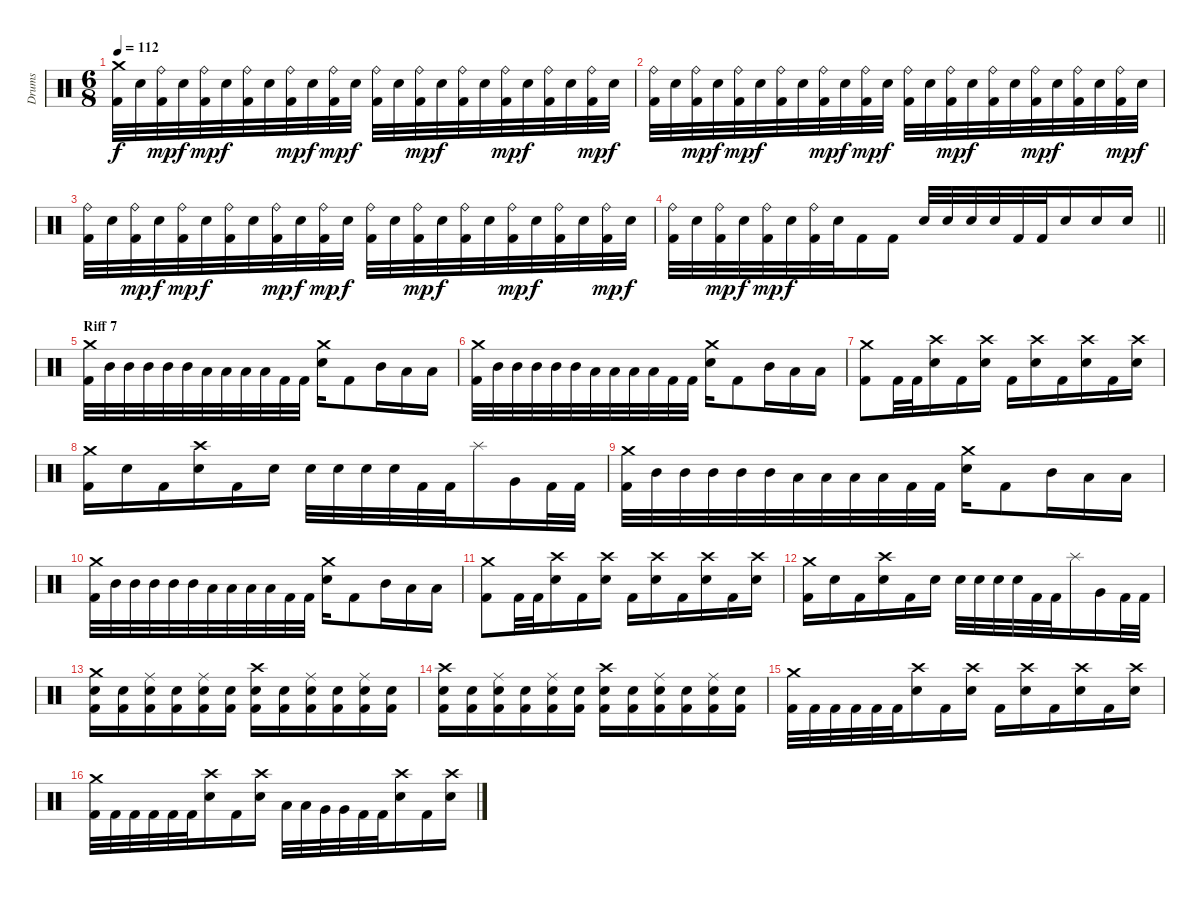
\track ("Drums" "Drums") {instrument percussion}
\staff {score}
\articulation defaults
\ts (6 8)
\tempo 112
\clef neutral
\ks c
("Crash medium (hit)" "Kick (hit) 2").32{dy f} "Electric Snare (hit)".32 ("Ride (bell)" "Kick (hit) 2").32{dy mp} "Electric Snare (hit)".32{dy f} ("Ride (bell)" "Kick (hit) 2").32{dy mp} "Electric Snare (hit)".32{dy f} ("Ride (bell)" "Kick (hit) 2").32 "Electric Snare (hit)".32 ("Ride (bell)" "Kick (hit) 2").32{dy mp} "Electric Snare (hit)".32{dy f} ("Ride (bell)" "Kick (hit) 2").32{dy mp} "Electric Snare (hit)".32{dy f} ("Ride (bell)" "Kick (hit) 2").32 "Electric Snare (hit)".32 ("Ride (bell)" "Kick (hit) 2").32{dy mp} "Electric Snare (hit)".32{dy f} ("Ride (bell)" "Kick (hit) 2").32 "Electric Snare (hit)".32 ("Ride (bell)" "Kick (hit) 2").32{dy mp} "Electric Snare (hit)".32{dy f} ("Ride (bell)" "Kick (hit) 2").32 "Electric Snare (hit)".32 ("Ride (bell)" "Kick (hit) 2").32{dy mp} "Electric Snare (hit)".32{dy f} |
("Ride (bell)" "Kick (hit) 2").32 "Electric Snare (hit)".32 ("Ride (bell)" "Kick (hit) 2").32{dy mp} "Electric Snare (hit)".32{dy f} ("Ride (bell)" "Kick (hit) 2").32{dy mp} "Electric Snare (hit)".32{dy f} ("Ride (bell)" "Kick (hit) 2").32 "Electric Snare (hit)".32 ("Ride (bell)" "Kick (hit) 2").32{dy mp} "Electric Snare (hit)".32{dy f} ("Ride (bell)" "Kick (hit) 2").32{dy mp} "Electric Snare (hit)".32{dy f} ("Ride (bell)" "Kick (hit) 2").32 "Electric Snare (hit)".32 ("Ride (bell)" "Kick (hit) 2").32{dy mp} "Electric Snare (hit)".32{dy f} ("Ride (bell)" "Kick (hit) 2").32 "Electric Snare (hit)".32 ("Ride (bell)" "Kick (hit) 2").32{dy mp} "Electric Snare (hit)".32{dy f} ("Ride (bell)" "Kick (hit) 2").32 "Electric Snare (hit)".32 ("Ride (bell)" "Kick (hit) 2").32{dy mp} "Electric Snare (hit)".32{dy f} |
("Ride (bell)" "Kick (hit) 2").32 "Electric Snare (hit)".32 ("Ride (bell)" "Kick (hit) 2").32{dy mp} "Electric Snare (hit)".32{dy f} ("Ride (bell)" "Kick (hit) 2").32{dy mp} "Electric Snare (hit)".32{dy f} ("Ride (bell)" "Kick (hit) 2").32 "Electric Snare (hit)".32 ("Ride (bell)" "Kick (hit) 2").32{dy mp} "Electric Snare (hit)".32{dy f} ("Ride (bell)" "Kick (hit) 2").32{dy mp} "Electric Snare (hit)".32{dy f} ("Ride (bell)" "Kick (hit) 2").32 "Electric Snare (hit)".32 ("Ride (bell)" "Kick (hit) 2").32{dy mp} "Electric Snare (hit)".32{dy f} ("Ride (bell)" "Kick (hit) 2").32 "Electric Snare (hit)".32 ("Ride (bell)" "Kick (hit) 2").32{dy mp} "Electric Snare (hit)".32{dy f} ("Ride (bell)" "Kick (hit) 2").32 "Electric Snare (hit)".32 ("Ride (bell)" "Kick (hit) 2").32{dy mp} "Electric Snare (hit)".32{dy f} |
\barLineRight lightlight
("Ride (bell)" "Kick (hit) 2").32 "Electric Snare (hit)".32 ("Ride (bell)" "Kick (hit) 2").32{dy mp} "Electric Snare (hit)".32{dy f} ("Ride (bell)" "Kick (hit) 2").32{dy mp} "Electric Snare (hit)".32{dy f} ("Ride (bell)" "Kick (hit) 2").32 "Electric Snare (hit)".32 "Kick (hit) 2".16 "Kick (hit) 2".16 "Electric Snare (hit)".32 "Electric Snare (hit)".32 "Electric Snare (hit)".32 "Electric Snare (hit)".32 "Kick (hit) 2".32 "Kick (hit) 2".32 "Electric Snare (hit)".16 "Electric Snare (hit)".16 "Electric Snare (hit)".16 |
\section ("" "Riff 7")
("Crash medium (hit)" "Kick (hit) 2").32 "Mid Tom (hit)".32 "Mid Tom (hit)".32 "Mid Tom (hit)".32 "Mid Tom (hit)".32 "Mid Tom (hit)".32 "Low Tom (hit)".32 "Low Tom (hit)".32 "Low Tom (hit)".32 "Low Tom (hit)".32 "Kick (hit) 2".32 "Kick (hit) 2".32 ("Crash medium (hit)" "Electric Snare (hit)").16 "Kick (hit) 2".8 "Mid Tom (hit)".16 "Low Tom (hit)".16 "Low Tom (hit)".16 |
("Crash medium (hit)" "Kick (hit) 2").32 "Mid Tom (hit)".32 "Mid Tom (hit)".32 "Mid Tom (hit)".32 "Mid Tom (hit)".32 "Mid Tom (hit)".32 "Low Tom (hit)".32 "Low Tom (hit)".32 "Low Tom (hit)".32 "Low Tom (hit)".32 "Kick (hit) 2".32 "Kick (hit) 2".32 ("Crash medium (hit)" "Electric Snare (hit)").16 "Kick (hit) 2".8 "Mid Tom (hit)".16 "Low Tom (hit)".16 "Low Tom (hit)".16 |
("Kick (hit) 2" "Crash medium (hit)").8 "Kick (hit) 2".32 "Kick (hit) 2".32 ("Crash high (hit)" "Electric Snare (hit)").16 "Kick (hit) 2".16 ("Electric Snare (hit)" "Crash high (hit)").16 "Kick (hit) 2".16 ("Electric Snare (hit)" "Crash high (hit)").16 "Kick (hit) 2".16 ("Electric Snare (hit)" "Crash high (hit)").16 "Kick (hit) 2".16 ("Electric Snare (hit)" "Crash high (hit)").16 |
("Crash medium (hit)" "Kick (hit) 2").16 "Electric Snare (hit)".16 "Kick (hit) 2".16 ("Electric Snare (hit)" "Crash high (hit)").16 "Kick (hit) 2".16 "Electric Snare (hit)".16 "Electric Snare (hit)".32 "Electric Snare (hit)".32 "Electric Snare (hit)".32 "Electric Snare (hit)".32 "Kick (hit) 2".32 "Kick (hit) 2".32 "Splash (hit)".16 "Very Low Tom (hit)".16 "Kick (hit) 2".32 "Kick (hit) 2".32 |
("Crash medium (hit)" "Kick (hit) 2").32 "Mid Tom (hit)".32 "Mid Tom (hit)".32 "Mid Tom (hit)".32 "Mid Tom (hit)".32 "Mid Tom (hit)".32 "Low Tom (hit)".32 "Low Tom (hit)".32 "Low Tom (hit)".32 "Low Tom (hit)".32 "Kick (hit) 2".32 "Kick (hit) 2".32 ("Crash medium (hit)" "Electric Snare (hit)").16 "Kick (hit) 2".8 "Mid Tom (hit)".16 "Low Tom (hit)".16 "Low Tom (hit)".16 |
("Crash medium (hit)" "Kick (hit) 2").32 "Mid Tom (hit)".32 "Mid Tom (hit)".32 "Mid Tom (hit)".32 "Mid Tom (hit)".32 "Mid Tom (hit)".32 "Low Tom (hit)".32 "Low Tom (hit)".32 "Low Tom (hit)".32 "Low Tom (hit)".32 "Kick (hit) 2".32 "Kick (hit) 2".32 ("Crash medium (hit)" "Electric Snare (hit)").16 "Kick (hit) 2".8 "Mid Tom (hit)".16 "Low Tom (hit)".16 "Low Tom (hit)".16 |
("Kick (hit) 2" "Crash medium (hit)").8 "Kick (hit) 2".32 "Kick (hit) 2".32 ("Crash high (hit)" "Electric Snare (hit)").16 "Kick (hit) 2".16 ("Electric Snare (hit)" "Crash high (hit)").16 "Kick (hit) 2".16 ("Electric Snare (hit)" "Crash high (hit)").16 "Kick (hit) 2".16 ("Electric Snare (hit)" "Crash high (hit)").16 "Kick (hit) 2".16 ("Electric Snare (hit)" "Crash high (hit)").16 |
("Crash medium (hit)" "Kick (hit) 2").16 "Electric Snare (hit)".16 "Kick (hit) 2".16 ("Electric Snare (hit)" "Crash high (hit)").16 "Kick (hit) 2".16 "Electric Snare (hit)".16 "Electric Snare (hit)".32 "Electric Snare (hit)".32 "Electric Snare (hit)".32 "Electric Snare (hit)".32 "Kick (hit) 2".32 "Kick (hit) 2".32 "Splash (hit)".16 "Very Low Tom (hit)".16 "Kick (hit) 2".32 "Kick (hit) 2".32 |
("Electric Snare (hit)" "Crash medium (hit)" "Kick (hit) 2").16 ("Electric Snare (hit)" "Kick (hit) 2").16 ("Electric Snare (hit)" "Ride (middle)" "Kick (hit) 2").16 ("Electric Snare (hit)" "Kick (hit) 2").16 ("Electric Snare (hit)" "Ride (middle)" "Kick (hit) 2").16 ("Electric Snare (hit)" "Kick (hit) 2").16 ("Electric Snare (hit)" "Crash high (hit)" "Kick (hit) 2").16 ("Electric Snare (hit)" "Kick (hit) 2").16 ("Electric Snare (hit)" "Ride (middle)" "Kick (hit) 2").16 ("Electric Snare (hit)" "Kick (hit) 2").16 ("Electric Snare (hit)" "Ride (middle)" "Kick (hit) 2").16 ("Electric Snare (hit)" "Kick (hit) 2").16 |
("Electric Snare (hit)" "Crash high (hit)" "Kick (hit) 2").16 ("Electric Snare (hit)" "Kick (hit) 2").16 ("Electric Snare (hit)" "Ride (middle)" "Kick (hit) 2").16 ("Electric Snare (hit)" "Kick (hit) 2").16 ("Electric Snare (hit)" "Ride (middle)" "Kick (hit) 2").16 ("Electric Snare (hit)" "Kick (hit) 2").16 ("Electric Snare (hit)" "Crash high (hit)" "Kick (hit) 2").16 ("Electric Snare (hit)" "Kick (hit) 2").16 ("Electric Snare (hit)" "Ride (middle)" "Kick (hit) 2").16 ("Electric Snare (hit)" "Kick (hit) 2").16 ("Electric Snare (hit)" "Ride (middle)" "Kick (hit) 2").16 ("Electric Snare (hit)" "Kick (hit) 2").16 |
("Crash medium (hit)" "Kick (hit) 2").32 "Kick (hit) 2".32 "Kick (hit) 2".32 "Kick (hit) 2".32 "Kick (hit) 2".32 "Kick (hit) 2".32 ("Electric Snare (hit)" "Crash high (hit)").16 "Kick (hit) 2".16 ("Electric Snare (hit)" "Crash high (hit)").16 "Kick (hit) 2".16 ("Electric Snare (hit)" "Crash high (hit)").16 "Kick (hit) 2".16 ("Electric Snare (hit)" "Crash high (hit)").16 "Kick (hit) 2".16 ("Electric Snare (hit)" "Crash high (hit)").16 |
("Crash medium (hit)" "Kick (hit) 2").32 "Kick (hit) 2".32 "Kick (hit) 2".32 "Kick (hit) 2".32 "Kick (hit) 2".32 "Kick (hit) 2".32 ("Electric Snare (hit)" "Crash high (hit)").16 "Kick (hit) 2".16 ("Electric Snare (hit)" "Crash high (hit)").16 "Low Tom (hit)".32 "Low Tom (hit)".32 "Very Low Tom (hit)".32 "Very Low Tom (hit)".32 "Kick (hit) 2".32 "Kick (hit) 2".32 ("Electric Snare (hit)" "Crash high (hit)").16 "Kick (hit) 2".16 ("Electric Snare (hit)" "Crash high (hit)").16
